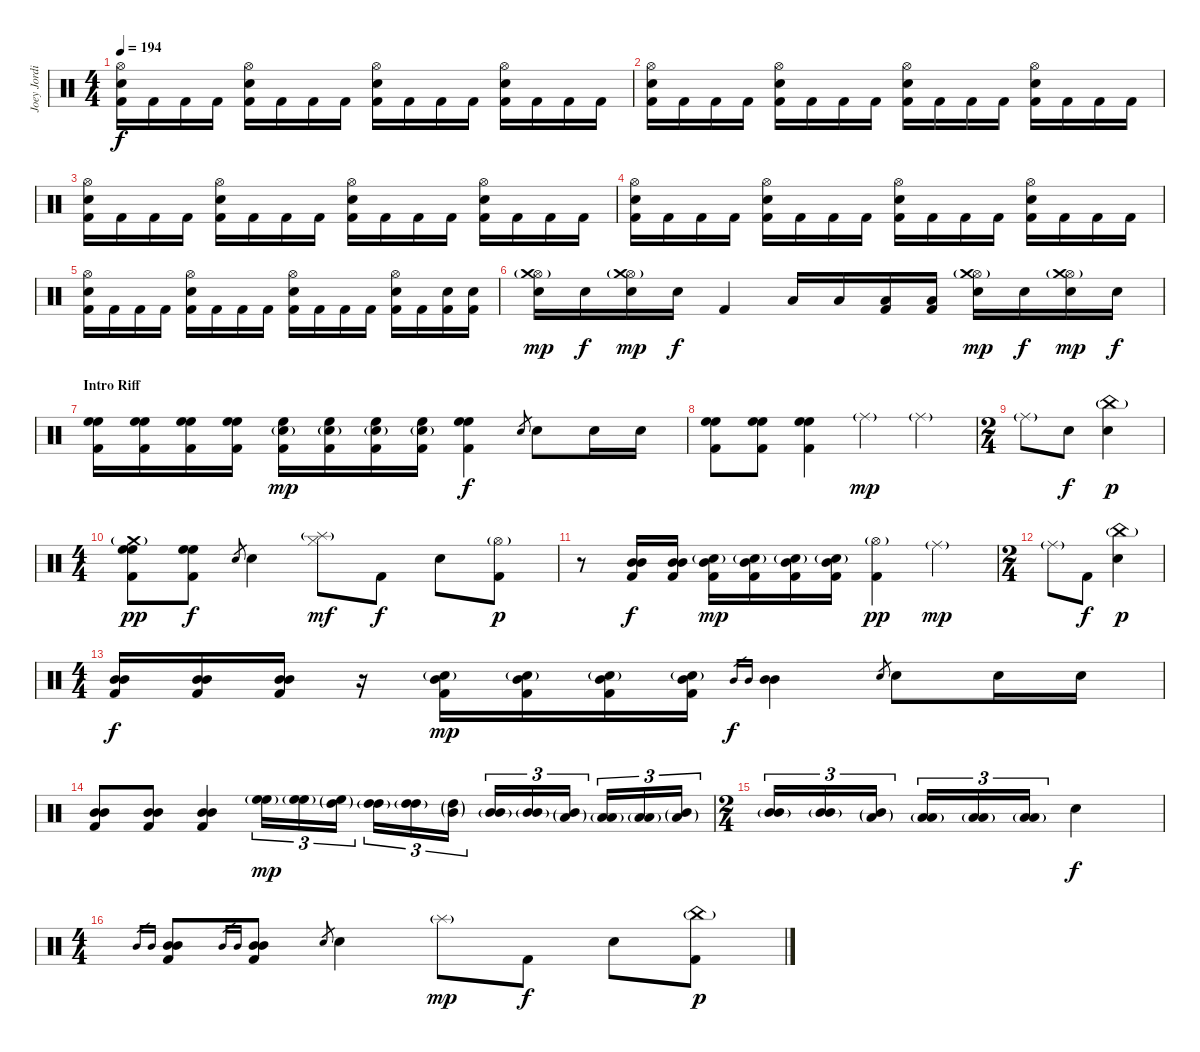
\track ("Joey Jordison" "Joey Jordi") {instrument percussion}
\staff {score}
\articulation defaults
\ts (4 4)
\tempo 194
\clef neutral
\ks c
("Hi-Hat (open)" "Snare (hit) 2" "Kick (hit) 2").16{dy f} "Kick (hit) 2".16 "Kick (hit) 2".16 "Kick (hit) 2".16 ("Hi-Hat (open)" "Snare (hit) 2" "Kick (hit) 2").16 "Kick (hit) 2".16 "Kick (hit) 2".16 "Kick (hit) 2".16 ("Hi-Hat (open)" "Snare (hit) 2" "Kick (hit) 2").16 "Kick (hit) 2".16 "Kick (hit) 2".16 "Kick (hit) 2".16 ("Hi-Hat (open)" "Snare (hit) 2" "Kick (hit) 2").16 "Kick (hit) 2".16 "Kick (hit) 2".16 "Kick (hit) 2".16 |
("Hi-Hat (open)" "Snare (hit) 2" "Kick (hit) 2").16 "Kick (hit) 2".16 "Kick (hit) 2".16 "Kick (hit) 2".16 ("Hi-Hat (open)" "Snare (hit) 2" "Kick (hit) 2").16 "Kick (hit) 2".16 "Kick (hit) 2".16 "Kick (hit) 2".16 ("Hi-Hat (open)" "Snare (hit) 2" "Kick (hit) 2").16 "Kick (hit) 2".16 "Kick (hit) 2".16 "Kick (hit) 2".16 ("Hi-Hat (open)" "Snare (hit) 2" "Kick (hit) 2").16 "Kick (hit) 2".16 "Kick (hit) 2".16 "Kick (hit) 2".16 |
("Hi-Hat (open)" "Snare (hit) 2" "Kick (hit) 2").16 "Kick (hit) 2".16 "Kick (hit) 2".16 "Kick (hit) 2".16 ("Hi-Hat (open)" "Snare (hit) 2" "Kick (hit) 2").16 "Kick (hit) 2".16 "Kick (hit) 2".16 "Kick (hit) 2".16 ("Hi-Hat (open)" "Snare (hit) 2" "Kick (hit) 2").16 "Kick (hit) 2".16 "Kick (hit) 2".16 "Kick (hit) 2".16 ("Hi-Hat (open)" "Snare (hit) 2" "Kick (hit) 2").16 "Kick (hit) 2".16 "Kick (hit) 2".16 "Kick (hit) 2".16 |
("Hi-Hat (open)" "Snare (hit) 2" "Kick (hit) 2").16 "Kick (hit) 2".16 "Kick (hit) 2".16 "Kick (hit) 2".16 ("Hi-Hat (open)" "Snare (hit) 2" "Kick (hit) 2").16 "Kick (hit) 2".16 "Kick (hit) 2".16 "Kick (hit) 2".16 ("Hi-Hat (open)" "Snare (hit) 2" "Kick (hit) 2").16 "Kick (hit) 2".16 "Kick (hit) 2".16 "Kick (hit) 2".16 ("Hi-Hat (open)" "Snare (hit) 2" "Kick (hit) 2").16 "Kick (hit) 2".16 "Kick (hit) 2".16 "Kick (hit) 2".16 |
("Hi-Hat (open)" "Snare (hit) 2" "Kick (hit) 2").16 "Kick (hit) 2".16 "Kick (hit) 2".16 "Kick (hit) 2".16 ("Hi-Hat (open)" "Snare (hit) 2" "Kick (hit) 2").16 "Kick (hit) 2".16 "Kick (hit) 2".16 "Kick (hit) 2".16 ("Hi-Hat (open)" "Snare (hit) 2" "Kick (hit) 2").16 "Kick (hit) 2".16 "Kick (hit) 2".16 "Kick (hit) 2".16 ("Hi-Hat (open)" "Snare (hit) 2" "Kick (hit) 2").16 "Kick (hit) 2".16 ("Snare (hit) 2" "Kick (hit) 2").16 ("Snare (hit) 2" "Kick (hit) 2").16 |
("Hi-Hat (open)" "Crash medium (hit)"{g} "Snare (hit) 2").16{dy mp} "Snare (hit) 2".16{dy f} ("Hi-Hat (open)" "Crash medium (hit)"{g} "Snare (hit) 2").16{dy mp} "Snare (hit) 2".16{dy f} "Kick (hit) 2".4 "Low Tom (hit)".16 "Low Tom (hit)".16 ("Low Tom (hit)" "Kick (hit) 2").16 ("Low Tom (hit)" "Kick (hit) 2").16 ("Hi-Hat (open)" "Crash medium (hit)"{g} "Snare (hit) 2").16{dy mp} "Snare (hit) 2".16{dy f} ("Hi-Hat (open)" "Crash medium (hit)"{g} "Snare (hit) 2").16{dy mp} "Snare (hit) 2".16{dy f} |
\section ("" "Intro Riff")
("High Floor Tom (hit)" "High Floor Tom (hit)" "Kick (hit) 2").16 ("High Floor Tom (hit)" "High Floor Tom (hit)" "Kick (hit) 2").16 ("High Floor Tom (hit)" "High Floor Tom (hit)" "Kick (hit) 2").16 ("High Floor Tom (hit)" "High Floor Tom (hit)" "Kick (hit) 2").16 ("Snare (hit) 2"{g} "High Floor Tom (hit)" "Kick (hit) 2").16{dy mp} ("Snare (hit) 2"{g} "High Floor Tom (hit)" "Kick (hit) 2").16 ("Snare (hit) 2"{g} "High Floor Tom (hit)" "Kick (hit) 2").16 ("Snare (hit) 2"{g} "High Floor Tom (hit)" "Kick (hit) 2").16 ("High Floor Tom (hit)" "High Floor Tom (hit)" "Kick (hit) 2").4{dy f} "Snare (hit) 2".8{gr} "Snare (hit) 2".8 "Snare (hit) 2".16 "Snare (hit) 2".16 |
("High Floor Tom (hit)" "High Floor Tom (hit)" "Kick (hit) 2").8 ("High Floor Tom (hit)" "High Floor Tom (hit)" "Kick (hit) 2").8 ("High Floor Tom (hit)" "High Floor Tom (hit)" "Kick (hit) 2").4 "Ride (middle)"{g}.4{dy mp} "Ride (middle)"{g}.4 |
\ts (2 4)
"Ride (middle)"{g}.8 "Snare (hit) 2".8{dy f} ("China (hit)"{g} "Snare (hit) 2").4{dy p} |
\ts (4 4)
("Crash medium (hit)"{g} "High Floor Tom (hit)" "High Floor Tom (hit)" "Kick (hit) 2").8{dy pp} ("High Floor Tom (hit)" "High Floor Tom (hit)" "Kick (hit) 2").8{dy f} "Snare (hit) 2".8{gr} "Snare (hit) 2".4 ("Splash (hit)"{g} "Hi-Hat (closed)").8{dy mf} "Kick (hit) 2".8{dy f} "Snare (hit) 2".8 ("Hi-Hat (open)"{g} "Kick (hit) 2").8{dy p} |
r.8 ("Mid Tom (hit)" "Mid Tom (hit)" "Kick (hit) 2").16{dy f} ("Mid Tom (hit)" "Mid Tom (hit)" "Kick (hit) 2").16 ("Snare (hit) 2"{g} "Mid Tom (hit)" "Kick (hit) 2").16{dy mp} ("Snare (hit) 2"{g} "Mid Tom (hit)" "Kick (hit) 2").16 ("Snare (hit) 2"{g} "Mid Tom (hit)" "Kick (hit) 2").16 ("Snare (hit) 2"{g} "Mid Tom (hit)" "Kick (hit) 2").16 ("Hi-Hat (open)"{g} "Kick (hit) 2").4{dy pp} "Ride (middle)"{g}.4{dy mp} |
\ts (2 4)
"Ride (middle)"{g}.8 "Kick (hit) 2".8{dy f} ("China (hit)"{g} "Snare (hit) 2").4{dy p} |
\ts (4 4)
("Mid Tom (hit)" "Mid Tom (hit)" "Kick (hit) 2").16{dy f} ("Mid Tom (hit)" "Mid Tom (hit)" "Kick (hit) 2").16 ("Mid Tom (hit)" "Mid Tom (hit)" "Kick (hit) 2").16 r.16 ("Snare (hit) 2"{g} "Mid Tom (hit)" "Kick (hit) 2").16{dy mp} ("Snare (hit) 2"{g} "Mid Tom (hit)" "Kick (hit) 2").16 ("Snare (hit) 2"{g} "Mid Tom (hit)" "Kick (hit) 2").16 ("Snare (hit) 2"{g} "Mid Tom (hit)" "Kick (hit) 2").16 "Mid Tom (hit)".16{gr dy f} "Mid Tom (hit)".16{gr} ("Mid Tom (hit)" "Mid Tom (hit)").4 "Snare (hit) 2".8{gr} "Snare (hit) 2".8 "Snare (hit) 2".16 "Snare (hit) 2".16 |
("Mid Tom (hit)" "Mid Tom (hit)" "Kick (hit) 2").8 ("Mid Tom (hit)" "Mid Tom (hit)" "Kick (hit) 2").8 ("Mid Tom (hit)" "Mid Tom (hit)" "Kick (hit) 2").4 ("High Floor Tom (hit)"{g} "High Floor Tom (hit)"{g}).16{tu (3 2) dy mp} ("High Floor Tom (hit)"{g} "High Floor Tom (hit)"{g}).16{tu (3 2)} ("High Floor Tom (hit)"{g} "High Tom (hit)"{g}).16{tu (3 2)} ("High Tom (hit)"{g} "High Tom (hit)"{g}).16{tu (3 2)} ("High Tom (hit)"{g} "High Tom (hit)"{g}).16{tu (3 2)} ("High Tom (hit)"{g} "Mid Tom (hit)"{g}).16{tu (3 2)} ("Mid Tom (hit)"{g} "Mid Tom (hit)"{g}).16{tu (3 2)} ("Mid Tom (hit)"{g} "Mid Tom (hit)"{g}).16{tu (3 2)} ("Mid Tom (hit)"{g} "Low Tom (hit)"{g}).16{tu (3 2)} ("Low Tom (hit)"{g} "Low Tom (hit)"{g}).16{tu (3 2)} ("Low Tom (hit)"{g} "Low Tom (hit)"{g}).16{tu (3 2)} ("Low Tom (hit)"{g} "Mid Tom (hit)"{g}).16{tu (3 2)} |
\ts (2 4)
("Mid Tom (hit)"{g} "Mid Tom (hit)"{g}).16{tu (3 2)} ("Mid Tom (hit)"{g} "Mid Tom (hit)"{g}).16{tu (3 2)} ("Mid Tom (hit)"{g} "Low Tom (hit)"{g}).16{tu (3 2)} ("Low Tom (hit)"{g} "Low Tom (hit)"{g}).16{tu (3 2)} ("Low Tom (hit)"{g} "Low Tom (hit)"{g}).16{tu (3 2)} ("Low Tom (hit)"{g} "Low Tom (hit)"{g}).16{tu (3 2)} "Snare (hit) 2".4{dy f} |
\ts (4 4)
"Mid Tom (hit)".16{gr} "Mid Tom (hit)".16{gr} ("Mid Tom (hit)" "Mid Tom (hit)" "Kick (hit) 2").8 "Mid Tom (hit)".16{gr} "Mid Tom (hit)".16{gr} ("Mid Tom (hit)" "Mid Tom (hit)" "Kick (hit) 2").8 "Snare (hit) 2".8{gr} "Snare (hit) 2".4 "Splash (hit)"{g}.8{dy mp} "Kick (hit) 2".8{dy f} "Snare (hit) 2".8 ("China (hit)"{g} "Kick (hit) 2").8{dy p}
